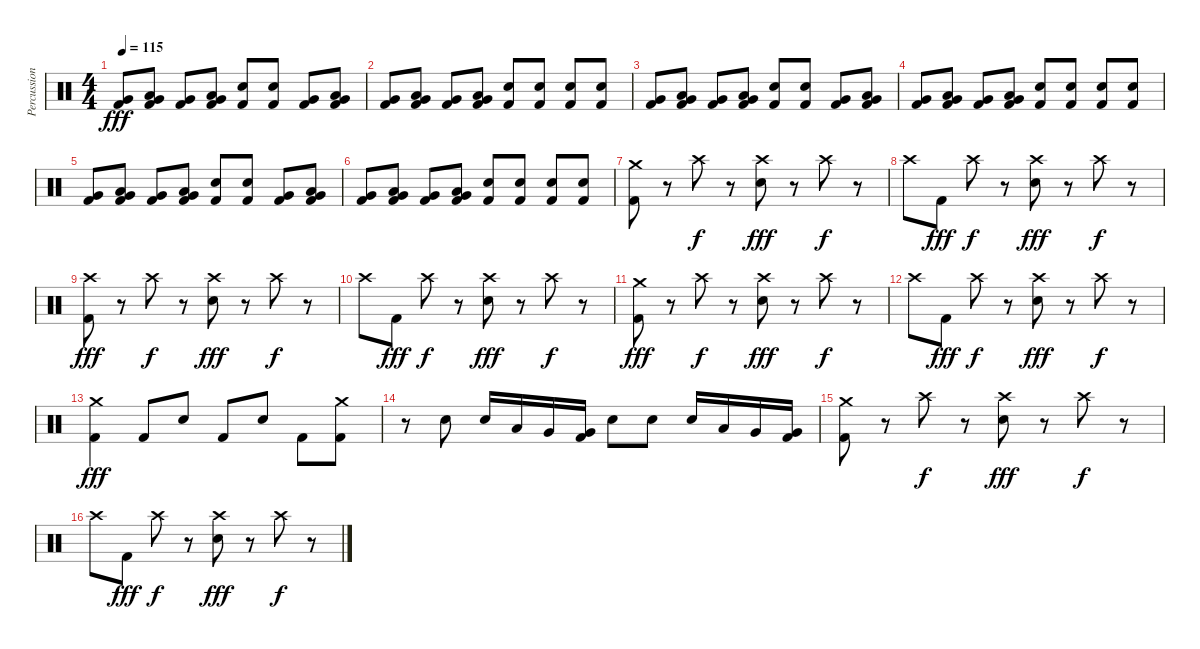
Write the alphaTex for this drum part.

\track ("Percussion" "Percussion") {instrument percussion}
\staff {score}
\articulation defaults
\ts (4 4)
\tempo 115
\clef neutral
\ks c
("Very Low Tom (hit)" "Kick (hit) 2").8{dy fff} ("Low Tom (hit)" "Very Low Tom (hit)" "Kick (hit) 2").8 ("Very Low Tom (hit)" "Kick (hit) 2").8 ("Low Tom (hit)" "Very Low Tom (hit)" "Kick (hit) 2").8 ("Snare (hit) 2" "Kick (hit) 2").8 ("Snare (hit) 2" "Kick (hit) 2").8 ("Very Low Tom (hit)" "Kick (hit) 2").8 ("Low Tom (hit)" "Very Low Tom (hit)" "Kick (hit) 2").8 |
("Very Low Tom (hit)" "Kick (hit) 2").8 ("Low Tom (hit)" "Very Low Tom (hit)" "Kick (hit) 2").8 ("Very Low Tom (hit)" "Kick (hit) 2").8 ("Low Tom (hit)" "Very Low Tom (hit)" "Kick (hit) 2").8 ("Snare (hit) 2" "Kick (hit) 2").8 ("Snare (hit) 2" "Kick (hit) 2").8 ("Snare (hit) 2" "Kick (hit) 2").8 ("Snare (hit) 2" "Kick (hit) 2").8 |
("Very Low Tom (hit)" "Kick (hit) 2").8 ("Low Tom (hit)" "Very Low Tom (hit)" "Kick (hit) 2").8 ("Very Low Tom (hit)" "Kick (hit) 2").8 ("Low Tom (hit)" "Very Low Tom (hit)" "Kick (hit) 2").8 ("Snare (hit) 2" "Kick (hit) 2").8 ("Snare (hit) 2" "Kick (hit) 2").8 ("Very Low Tom (hit)" "Kick (hit) 2").8 ("Low Tom (hit)" "Very Low Tom (hit)" "Kick (hit) 2").8 |
("Very Low Tom (hit)" "Kick (hit) 2").8 ("Low Tom (hit)" "Very Low Tom (hit)" "Kick (hit) 2").8 ("Very Low Tom (hit)" "Kick (hit) 2").8 ("Low Tom (hit)" "Very Low Tom (hit)" "Kick (hit) 2").8 ("Snare (hit) 2" "Kick (hit) 2").8 ("Snare (hit) 2" "Kick (hit) 2").8 ("Snare (hit) 2" "Kick (hit) 2").8 ("Snare (hit) 2" "Kick (hit) 2").8 |
("Very Low Tom (hit)" "Kick (hit) 2").8 ("Low Tom (hit)" "Very Low Tom (hit)" "Kick (hit) 2").8 ("Very Low Tom (hit)" "Kick (hit) 2").8 ("Low Tom (hit)" "Very Low Tom (hit)" "Kick (hit) 2").8 ("Snare (hit) 2" "Kick (hit) 2").8 ("Snare (hit) 2" "Kick (hit) 2").8 ("Very Low Tom (hit)" "Kick (hit) 2").8 ("Low Tom (hit)" "Very Low Tom (hit)" "Kick (hit) 2").8 |
("Very Low Tom (hit)" "Kick (hit) 2").8 ("Low Tom (hit)" "Very Low Tom (hit)" "Kick (hit) 2").8 ("Very Low Tom (hit)" "Kick (hit) 2").8 ("Low Tom (hit)" "Very Low Tom (hit)" "Kick (hit) 2").8 ("Snare (hit) 2" "Kick (hit) 2").8 ("Snare (hit) 2" "Kick (hit) 2").8 ("Snare (hit) 2" "Kick (hit) 2").8 ("Snare (hit) 2" "Kick (hit) 2").8 |
("Crash medium (hit)" "Kick (hit) 2").8 r.8 "Crash high (hit)".8{dy f} r.8 ("Crash high (hit)" "Snare (hit) 2").8{dy fff} r.8 "Crash high (hit)".8{dy f} r.8 |
"Crash high (hit)".8 "Kick (hit) 2".8{dy fff} "Crash high (hit)".8{dy f} r.8 ("Crash high (hit)" "Snare (hit) 2").8{dy fff} r.8 "Crash high (hit)".8{dy f} r.8 |
("Crash high (hit)" "Kick (hit) 2").8{dy fff} r.8 "Crash high (hit)".8{dy f} r.8 ("Crash high (hit)" "Snare (hit) 2").8{dy fff} r.8 "Crash high (hit)".8{dy f} r.8 |
"Crash high (hit)".8 "Kick (hit) 2".8{dy fff} "Crash high (hit)".8{dy f} r.8 ("Crash high (hit)" "Snare (hit) 2").8{dy fff} r.8 "Crash high (hit)".8{dy f} r.8 |
("Crash medium (hit)" "Kick (hit) 2").8{dy fff} r.8 "Crash high (hit)".8{dy f} r.8 ("Crash high (hit)" "Snare (hit) 2").8{dy fff} r.8 "Crash high (hit)".8{dy f} r.8 |
"Crash high (hit)".8 "Kick (hit) 2".8{dy fff} "Crash high (hit)".8{dy f} r.8 ("Crash high (hit)" "Snare (hit) 2").8{dy fff} r.8 "Crash high (hit)".8{dy f} r.8 |
("Crash medium (hit)" "Kick (hit) 2").4{dy fff} "Kick (hit) 2".8 "Snare (hit) 2".8 "Kick (hit) 2".8 "Snare (hit) 2".8 "Kick (hit) 2".8 ("Crash medium (hit)" "Kick (hit) 2").8 |
r.8 "Snare (hit) 2".8 "Snare (hit) 2".16 "Low Tom (hit)".16 "Very Low Tom (hit)".16 ("Very Low Tom (hit)" "Kick (hit) 2").16 "Snare (hit) 2".8 "Snare (hit) 2".8 "Snare (hit) 2".16 "Low Tom (hit)".16 "Very Low Tom (hit)".16 ("Very Low Tom (hit)" "Kick (hit) 2").16 |
("Crash medium (hit)" "Kick (hit) 2").8 r.8 "Crash high (hit)".8{dy f} r.8 ("Crash high (hit)" "Snare (hit) 2").8{dy fff} r.8 "Crash high (hit)".8{dy f} r.8 |
"Crash high (hit)".8 "Kick (hit) 2".8{dy fff} "Crash high (hit)".8{dy f} r.8 ("Crash high (hit)" "Snare (hit) 2").8{dy fff} r.8 "Crash high (hit)".8{dy f} r.8
